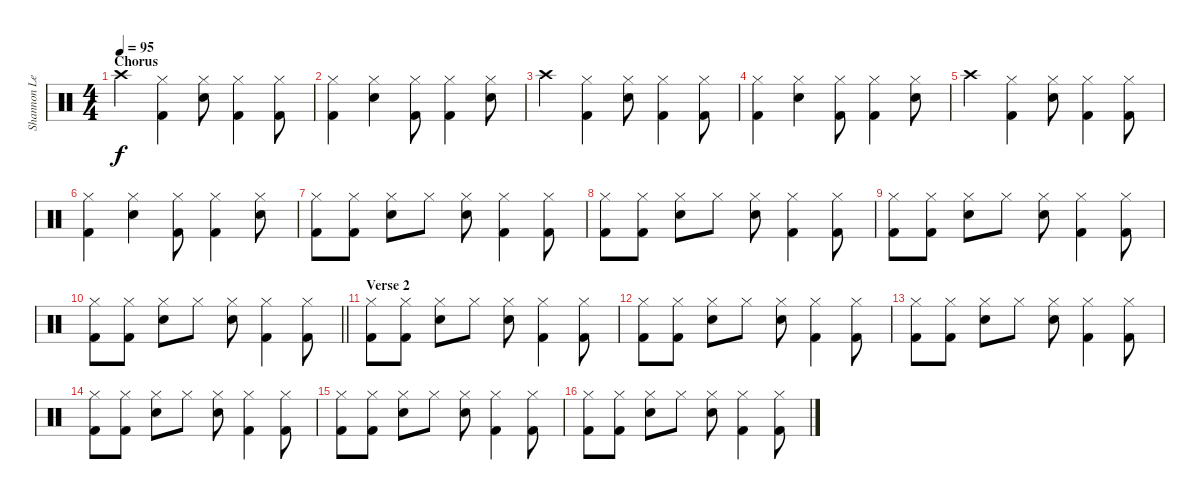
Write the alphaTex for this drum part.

\track ("Shannon Leto (Percussion)" "Shannon Le") {instrument percussion}
\staff {score}
\articulation defaults
\ts (4 4)
\section ("" "Chorus")
\tempo 95
\clef neutral
\ks c "Crash high (hit)".4{dy f}
("Hi-Hat (closed)" "Kick (hit) 2").4 ("Hi-Hat (closed)" "Snare (hit) 2").8 ("Hi-Hat (closed)" "Kick (hit) 2").4 ("Hi-Hat (closed)" "Kick (hit) 2").8 |
("Hi-Hat (closed)" "Kick (hit) 2").4 ("Hi-Hat (closed)" "Snare (hit) 2").4 ("Hi-Hat (closed)" "Kick (hit) 2").8 ("Hi-Hat (closed)" "Kick (hit) 2").4 ("Hi-Hat (closed)" "Snare (hit) 2").8 |
"Crash high (hit)".4 ("Hi-Hat (closed)" "Kick (hit) 2").4 ("Hi-Hat (closed)" "Snare (hit) 2").8 ("Hi-Hat (closed)" "Kick (hit) 2").4 ("Hi-Hat (closed)" "Kick (hit) 2").8 |
("Hi-Hat (closed)" "Kick (hit) 2").4 ("Hi-Hat (closed)" "Snare (hit) 2").4 ("Hi-Hat (closed)" "Kick (hit) 2").8 ("Hi-Hat (closed)" "Kick (hit) 2").4 ("Hi-Hat (closed)" "Snare (hit) 2").8 |
"Crash high (hit)".4 ("Hi-Hat (closed)" "Kick (hit) 2").4 ("Hi-Hat (closed)" "Snare (hit) 2").8 ("Hi-Hat (closed)" "Kick (hit) 2").4 ("Hi-Hat (closed)" "Kick (hit) 2").8 |
("Hi-Hat (closed)" "Kick (hit) 2").4 ("Hi-Hat (closed)" "Snare (hit) 2").4 ("Hi-Hat (closed)" "Kick (hit) 2").8 ("Hi-Hat (closed)" "Kick (hit) 2").4 ("Hi-Hat (closed)" "Snare (hit) 2").8 |
("Hi-Hat (closed)" "Kick (hit) 2").8 ("Hi-Hat (closed)" "Kick (hit) 2").8 ("Hi-Hat (closed)" "Snare (hit) 2").8 "Hi-Hat (closed)".8 ("Hi-Hat (closed)" "Snare (hit) 2").8 ("Hi-Hat (closed)" "Kick (hit) 2").4 ("Hi-Hat (closed)" "Kick (hit) 2").8 |
("Hi-Hat (closed)" "Kick (hit) 2").8 ("Hi-Hat (closed)" "Kick (hit) 2").8 ("Hi-Hat (closed)" "Snare (hit) 2").8 "Hi-Hat (closed)".8 ("Hi-Hat (closed)" "Snare (hit) 2").8 ("Hi-Hat (closed)" "Kick (hit) 2").4 ("Hi-Hat (closed)" "Kick (hit) 2").8 |
("Hi-Hat (closed)" "Kick (hit) 2").8 ("Hi-Hat (closed)" "Kick (hit) 2").8 ("Hi-Hat (closed)" "Snare (hit) 2").8 "Hi-Hat (closed)".8 ("Hi-Hat (closed)" "Snare (hit) 2").8 ("Hi-Hat (closed)" "Kick (hit) 2").4 ("Hi-Hat (closed)" "Kick (hit) 2").8 |
\barLineRight lightlight
("Hi-Hat (closed)" "Kick (hit) 2").8 ("Hi-Hat (closed)" "Kick (hit) 2").8 ("Hi-Hat (closed)" "Snare (hit) 2").8 "Hi-Hat (closed)".8 ("Hi-Hat (closed)" "Snare (hit) 2").8 ("Hi-Hat (closed)" "Kick (hit) 2").4 ("Hi-Hat (closed)" "Kick (hit) 2").8 |
\section ("" "Verse 2")
("Hi-Hat (closed)" "Kick (hit) 2").8 ("Hi-Hat (closed)" "Kick (hit) 2").8 ("Hi-Hat (closed)" "Snare (hit) 2").8 "Hi-Hat (closed)".8 ("Hi-Hat (closed)" "Snare (hit) 2").8 ("Hi-Hat (closed)" "Kick (hit) 2").4 ("Hi-Hat (closed)" "Kick (hit) 2").8 |
("Hi-Hat (closed)" "Kick (hit) 2").8 ("Hi-Hat (closed)" "Kick (hit) 2").8 ("Hi-Hat (closed)" "Snare (hit) 2").8 "Hi-Hat (closed)".8 ("Hi-Hat (closed)" "Snare (hit) 2").8 ("Hi-Hat (closed)" "Kick (hit) 2").4 ("Hi-Hat (closed)" "Kick (hit) 2").8 |
("Hi-Hat (closed)" "Kick (hit) 2").8 ("Hi-Hat (closed)" "Kick (hit) 2").8 ("Hi-Hat (closed)" "Snare (hit) 2").8 "Hi-Hat (closed)".8 ("Hi-Hat (closed)" "Snare (hit) 2").8 ("Hi-Hat (closed)" "Kick (hit) 2").4 ("Hi-Hat (closed)" "Kick (hit) 2").8 |
("Hi-Hat (closed)" "Kick (hit) 2").8 ("Hi-Hat (closed)" "Kick (hit) 2").8 ("Hi-Hat (closed)" "Snare (hit) 2").8 "Hi-Hat (closed)".8 ("Hi-Hat (closed)" "Snare (hit) 2").8 ("Hi-Hat (closed)" "Kick (hit) 2").4 ("Hi-Hat (closed)" "Kick (hit) 2").8 |
("Hi-Hat (closed)" "Kick (hit) 2").8 ("Hi-Hat (closed)" "Kick (hit) 2").8 ("Hi-Hat (closed)" "Snare (hit) 2").8 "Hi-Hat (closed)".8 ("Hi-Hat (closed)" "Snare (hit) 2").8 ("Hi-Hat (closed)" "Kick (hit) 2").4 ("Hi-Hat (closed)" "Kick (hit) 2").8 |
("Hi-Hat (closed)" "Kick (hit) 2").8 ("Hi-Hat (closed)" "Kick (hit) 2").8 ("Hi-Hat (closed)" "Snare (hit) 2").8 "Hi-Hat (closed)".8 ("Hi-Hat (closed)" "Snare (hit) 2").8 ("Hi-Hat (closed)" "Kick (hit) 2").4 ("Hi-Hat (closed)" "Kick (hit) 2").8
